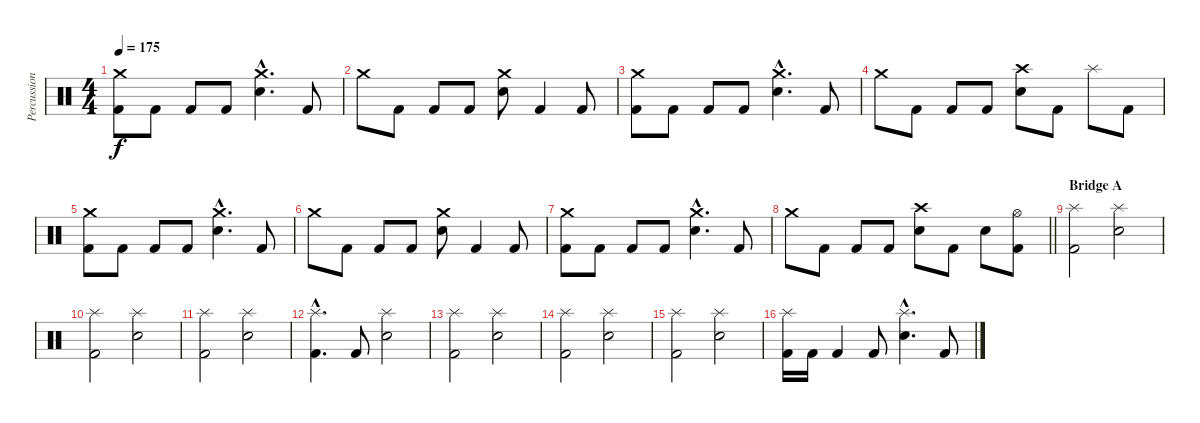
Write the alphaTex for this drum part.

\track ("Percussion" "Percussion") {instrument percussion}
\staff {score}
\articulation defaults
\ts (4 4)
\tempo 175
\clef neutral
\ks c
("Crash medium (hit)" "Kick (hit) 2").8{dy f} "Kick (hit) 2".8 "Kick (hit) 2".8 "Kick (hit) 2".8 ("Crash medium (hit)"{hac} "Electric Snare (hit)"{hac}).4{d} "Kick (hit) 2".8 |
"Crash medium (hit)".8 "Kick (hit) 2".8 "Kick (hit) 2".8 "Kick (hit) 2".8 ("Crash medium (hit)" "Electric Snare (hit)").8 "Kick (hit) 2".4 "Kick (hit) 2".8 |
("Crash medium (hit)" "Kick (hit) 2").8 "Kick (hit) 2".8 "Kick (hit) 2".8 "Kick (hit) 2".8 ("Crash medium (hit)"{hac} "Electric Snare (hit)"{hac}).4{d} "Kick (hit) 2".8 |
"Crash medium (hit)".8 "Kick (hit) 2".8 "Kick (hit) 2".8 "Kick (hit) 2".8 ("Crash high (hit)" "Electric Snare (hit)").8 "Kick (hit) 2".8 "Splash (hit)".8 "Kick (hit) 2".8 |
("Crash medium (hit)" "Kick (hit) 2").8 "Kick (hit) 2".8 "Kick (hit) 2".8 "Kick (hit) 2".8 ("Crash medium (hit)"{hac} "Electric Snare (hit)"{hac}).4{d} "Kick (hit) 2".8 |
"Crash medium (hit)".8 "Kick (hit) 2".8 "Kick (hit) 2".8 "Kick (hit) 2".8 ("Crash medium (hit)" "Electric Snare (hit)").8 "Kick (hit) 2".4 "Kick (hit) 2".8 |
("Crash medium (hit)" "Kick (hit) 2").8 "Kick (hit) 2".8 "Kick (hit) 2".8 "Kick (hit) 2".8 ("Crash medium (hit)"{hac} "Electric Snare (hit)"{hac}).4{d} "Kick (hit) 2".8 |
\barLineRight lightlight "Crash medium (hit)".8 "Kick (hit) 2".8 "Kick (hit) 2".8 "Kick (hit) 2".8
("Crash high (hit)" "Electric Snare (hit)").8 "Kick (hit) 2".8 "Electric Snare (hit)".8 ("Hi-Hat (open)" "Kick (hit) 2").8 |
\section ("" "Bridge A")
("Splash (hit)" "Kick (hit) 2").2 ("Splash (hit)" "Electric Snare (hit)").2 |
("Splash (hit)" "Kick (hit) 2").2 ("Splash (hit)" "Electric Snare (hit)").2 |
("Splash (hit)" "Kick (hit) 2").2 ("Splash (hit)" "Electric Snare (hit)").2 |
("Splash (hit)"{hac} "Kick (hit) 2"{hac}).4{d} "Kick (hit) 2".8 ("Splash (hit)" "Electric Snare (hit)").2 |
("Splash (hit)" "Kick (hit) 2").2 ("Splash (hit)" "Electric Snare (hit)").2 |
("Splash (hit)" "Kick (hit) 2").2 ("Splash (hit)" "Electric Snare (hit)").2 |
("Splash (hit)" "Kick (hit) 2").2 ("Splash (hit)" "Electric Snare (hit)").2 |
("Splash (hit)" "Kick (hit) 2").16 "Kick (hit) 2".16 "Kick (hit) 2".4 "Kick (hit) 2".8 ("Splash (hit)"{hac} "Electric Snare (hit)"{hac}).4{d} "Kick (hit) 2".8
